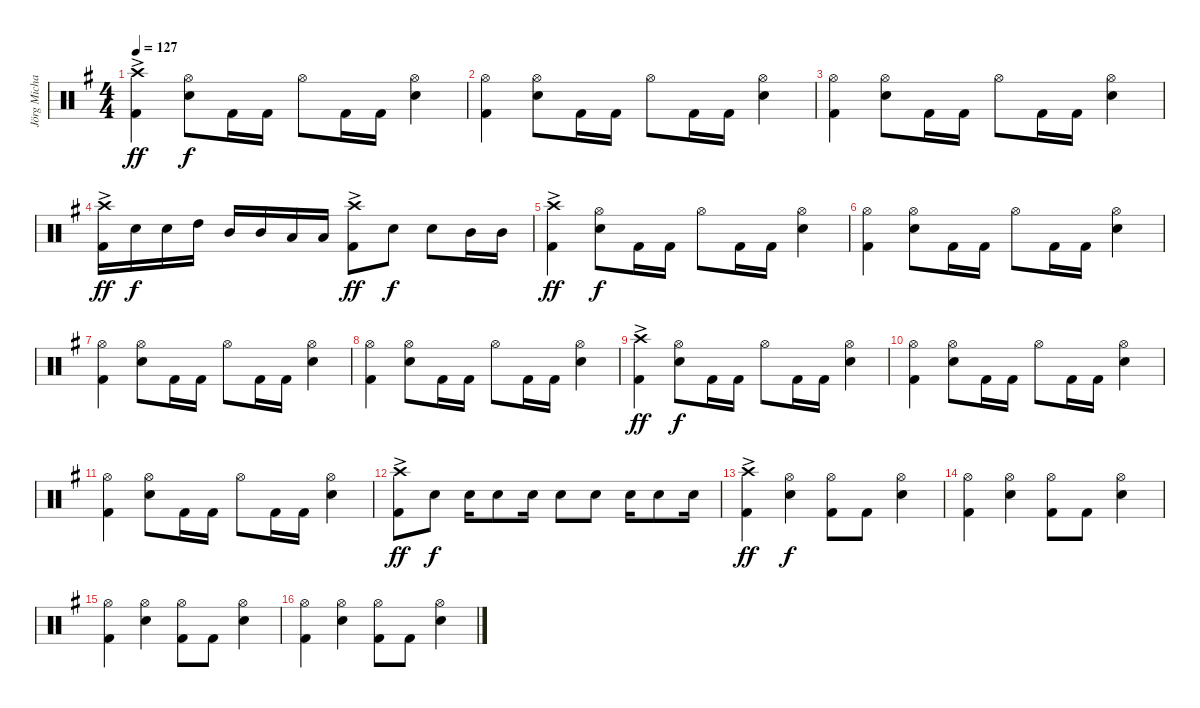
\track ("Jörg Michael" "Jörg Micha") {instrument percussion}
\staff {score}
\articulation defaults
\ts (4 4)
\tempo 127
\clef neutral
\ks g
("Crash high (hit)"{ac} "Kick (hit) 2"{ac}).4{dy ff} ("Hi-Hat (open)" "Electric Snare (hit)").8{dy f} "Kick (hit) 2".16 "Kick (hit) 2".16 "Hi-Hat (open)".8 "Kick (hit) 2".16 "Kick (hit) 2".16 ("Hi-Hat (open)" "Electric Snare (hit)").4 |
("Hi-Hat (open)" "Kick (hit) 2").4 ("Hi-Hat (open)" "Electric Snare (hit)").8 "Kick (hit) 2".16 "Kick (hit) 2".16 "Hi-Hat (open)".8 "Kick (hit) 2".16 "Kick (hit) 2".16 ("Hi-Hat (open)" "Electric Snare (hit)").4 |
("Hi-Hat (open)" "Kick (hit) 2").4 ("Hi-Hat (open)" "Electric Snare (hit)").8 "Kick (hit) 2".16 "Kick (hit) 2".16 "Hi-Hat (open)".8 "Kick (hit) 2".16 "Kick (hit) 2".16 ("Hi-Hat (open)" "Electric Snare (hit)").4 |
("Crash high (hit)"{ac} "Kick (hit) 2"{ac}).16{dy ff} "Electric Snare (hit)".16{dy f} "Electric Snare (hit)".16 "High Tom (hit)".16 "Mid Tom (hit)".16 "Mid Tom (hit)".16 "Low Tom (hit)".16 "Low Tom (hit)".16 ("Crash high (hit)"{ac} "Kick (hit) 2"{ac}).8{dy ff} "Electric Snare (hit)".8{dy f} "Electric Snare (hit)".8 "Mid Tom (hit)".16 "Mid Tom (hit)".16 |
("Crash high (hit)"{ac} "Kick (hit) 2"{ac}).4{dy ff} ("Hi-Hat (open)" "Electric Snare (hit)").8{dy f} "Kick (hit) 2".16 "Kick (hit) 2".16 "Hi-Hat (open)".8 "Kick (hit) 2".16 "Kick (hit) 2".16 ("Hi-Hat (open)" "Electric Snare (hit)").4 |
("Hi-Hat (open)" "Kick (hit) 2").4 ("Hi-Hat (open)" "Electric Snare (hit)").8 "Kick (hit) 2".16 "Kick (hit) 2".16 "Hi-Hat (open)".8 "Kick (hit) 2".16 "Kick (hit) 2".16 ("Hi-Hat (open)" "Electric Snare (hit)").4 |
("Hi-Hat (open)" "Kick (hit) 2").4 ("Hi-Hat (open)" "Electric Snare (hit)").8 "Kick (hit) 2".16 "Kick (hit) 2".16 "Hi-Hat (open)".8 "Kick (hit) 2".16 "Kick (hit) 2".16 ("Hi-Hat (open)" "Electric Snare (hit)").4 |
("Hi-Hat (open)" "Kick (hit) 2").4 ("Hi-Hat (open)" "Electric Snare (hit)").8 "Kick (hit) 2".16 "Kick (hit) 2".16 "Hi-Hat (open)".8 "Kick (hit) 2".16 "Kick (hit) 2".16 ("Hi-Hat (open)" "Electric Snare (hit)").4 |
("Crash high (hit)"{ac} "Kick (hit) 2"{ac}).4{dy ff} ("Hi-Hat (open)" "Electric Snare (hit)").8{dy f} "Kick (hit) 2".16 "Kick (hit) 2".16 "Hi-Hat (open)".8 "Kick (hit) 2".16 "Kick (hit) 2".16 ("Hi-Hat (open)" "Electric Snare (hit)").4 |
("Hi-Hat (open)" "Kick (hit) 2").4 ("Hi-Hat (open)" "Electric Snare (hit)").8 "Kick (hit) 2".16 "Kick (hit) 2".16 "Hi-Hat (open)".8 "Kick (hit) 2".16 "Kick (hit) 2".16 ("Hi-Hat (open)" "Electric Snare (hit)").4 |
("Hi-Hat (open)" "Kick (hit) 2").4 ("Hi-Hat (open)" "Electric Snare (hit)").8 "Kick (hit) 2".16 "Kick (hit) 2".16 "Hi-Hat (open)".8 "Kick (hit) 2".16 "Kick (hit) 2".16 ("Hi-Hat (open)" "Electric Snare (hit)").4 |
("Crash high (hit)"{ac} "Kick (hit) 2"{ac}).8{dy ff} "Electric Snare (hit)".8{dy f} "Electric Snare (hit)".16 "Electric Snare (hit)".8 "Electric Snare (hit)".16 "Electric Snare (hit)".8 "Electric Snare (hit)".8 "Electric Snare (hit)".16 "Electric Snare (hit)".8 "Electric Snare (hit)".16 |
("Crash high (hit)"{ac} "Kick (hit) 2"{ac}).4{dy ff} ("Hi-Hat (open)" "Electric Snare (hit)").4{dy f} ("Hi-Hat (open)" "Kick (hit) 2").8 "Kick (hit) 2".8 ("Hi-Hat (open)" "Electric Snare (hit)").4 |
("Hi-Hat (open)" "Kick (hit) 2").4 ("Hi-Hat (open)" "Electric Snare (hit)").4 ("Hi-Hat (open)" "Kick (hit) 2").8 "Kick (hit) 2".8 ("Hi-Hat (open)" "Electric Snare (hit)").4 |
("Hi-Hat (open)" "Kick (hit) 2").4 ("Hi-Hat (open)" "Electric Snare (hit)").4 ("Hi-Hat (open)" "Kick (hit) 2").8 "Kick (hit) 2".8 ("Hi-Hat (open)" "Electric Snare (hit)").4 |
("Hi-Hat (open)" "Kick (hit) 2").4 ("Hi-Hat (open)" "Electric Snare (hit)").4 ("Hi-Hat (open)" "Kick (hit) 2").8 "Kick (hit) 2".8 ("Hi-Hat (open)" "Electric Snare (hit)").4
